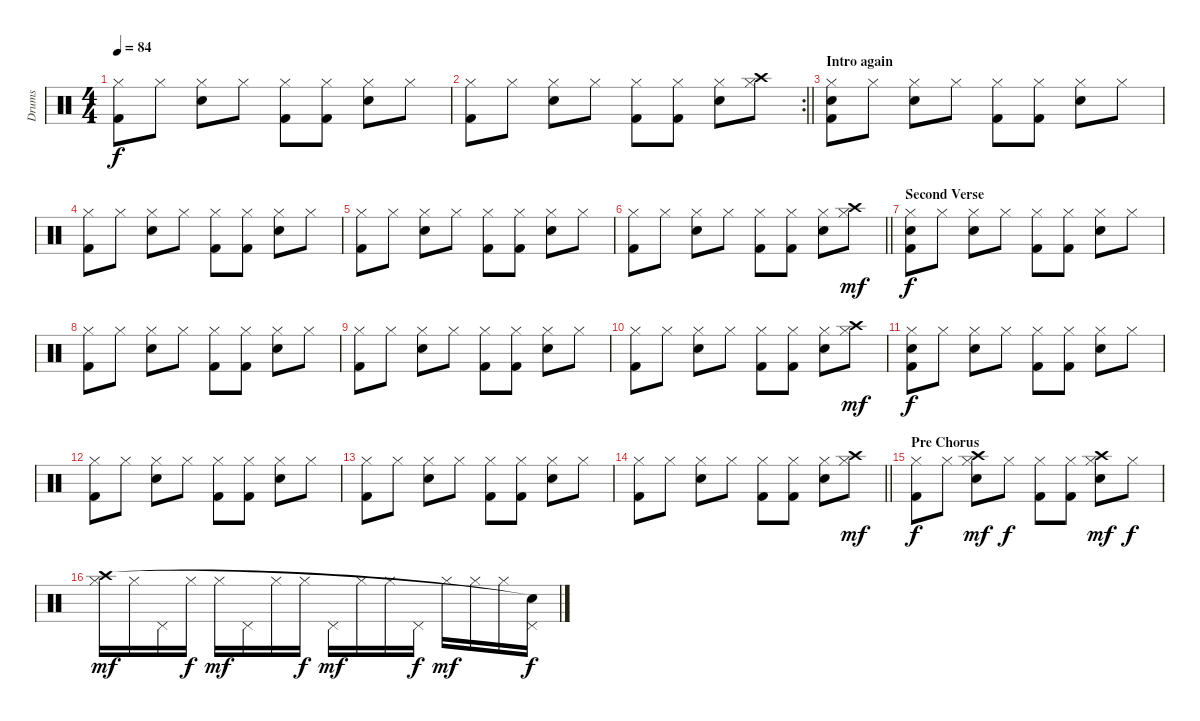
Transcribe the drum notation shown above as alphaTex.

\track ("Drums" "Drums") {instrument percussion}
\staff {score}
\articulation defaults
\ts (4 4)
\tempo 84
\clef neutral
\ks c
("Hi-Hat (closed)" "Kick (hit) 2").8{dy f} "Hi-Hat (closed)".8 ("Hi-Hat (closed)" "Snare (hit) 2").8 "Hi-Hat (closed)".8 ("Hi-Hat (closed)" "Kick (hit) 2").8 ("Hi-Hat (closed)" "Kick (hit) 2").8 ("Hi-Hat (closed)" "Snare (hit) 2").8 "Hi-Hat (closed)".8 |
\rc 2
\barLineRight lightlight
("Hi-Hat (closed)" "Kick (hit) 2").8 "Hi-Hat (closed)".8 ("Hi-Hat (closed)" "Snare (hit) 2").8 "Hi-Hat (closed)".8 ("Hi-Hat (closed)" "Kick (hit) 2").8 ("Hi-Hat (closed)" "Kick (hit) 2").8 ("Hi-Hat (closed)" "Snare (hit) 2").8 ("Hi-Hat (closed)" "Crash high (hit)").8 |
\section ("" "Intro again")
("Hi-Hat (closed)" "Kick (hit) 2" "Snare (hit)").8 "Hi-Hat (closed)".8 ("Hi-Hat (closed)" "Snare (hit) 2").8 "Hi-Hat (closed)".8 ("Hi-Hat (closed)" "Kick (hit) 2").8 ("Hi-Hat (closed)" "Kick (hit) 2").8 ("Hi-Hat (closed)" "Snare (hit) 2").8 "Hi-Hat (closed)".8 |
("Hi-Hat (closed)" "Kick (hit) 2").8 "Hi-Hat (closed)".8 ("Hi-Hat (closed)" "Snare (hit) 2").8 "Hi-Hat (closed)".8 ("Hi-Hat (closed)" "Kick (hit) 2").8 ("Hi-Hat (closed)" "Kick (hit) 2").8 ("Hi-Hat (closed)" "Snare (hit) 2").8 "Hi-Hat (closed)".8 |
("Hi-Hat (closed)" "Kick (hit) 2").8 "Hi-Hat (closed)".8 ("Hi-Hat (closed)" "Snare (hit) 2").8 "Hi-Hat (closed)".8 ("Hi-Hat (closed)" "Kick (hit) 2").8 ("Hi-Hat (closed)" "Kick (hit) 2").8 ("Hi-Hat (closed)" "Snare (hit) 2").8 "Hi-Hat (closed)".8 |
\barLineRight lightlight
("Hi-Hat (closed)" "Kick (hit) 2").8 "Hi-Hat (closed)".8 ("Hi-Hat (closed)" "Snare (hit) 2").8 "Hi-Hat (closed)".8 ("Hi-Hat (closed)" "Kick (hit) 2").8 ("Hi-Hat (closed)" "Kick (hit) 2").8 ("Hi-Hat (closed)" "Snare (hit) 2").8 ("Hi-Hat (closed)" "Crash high (hit)").8{dy mf} |
\section ("" "Second Verse")
("Hi-Hat (closed)" "Kick (hit) 2" "Snare (hit)").8{dy f} "Hi-Hat (closed)".8 ("Hi-Hat (closed)" "Snare (hit) 2").8 "Hi-Hat (closed)".8 ("Hi-Hat (closed)" "Kick (hit) 2").8 ("Hi-Hat (closed)" "Kick (hit) 2").8 ("Hi-Hat (closed)" "Snare (hit) 2").8 "Hi-Hat (closed)".8 |
("Hi-Hat (closed)" "Kick (hit) 2").8 "Hi-Hat (closed)".8 ("Hi-Hat (closed)" "Snare (hit) 2").8 "Hi-Hat (closed)".8 ("Hi-Hat (closed)" "Kick (hit) 2").8 ("Hi-Hat (closed)" "Kick (hit) 2").8 ("Hi-Hat (closed)" "Snare (hit) 2").8 "Hi-Hat (closed)".8 |
("Hi-Hat (closed)" "Kick (hit) 2").8 "Hi-Hat (closed)".8 ("Hi-Hat (closed)" "Snare (hit) 2").8 "Hi-Hat (closed)".8 ("Hi-Hat (closed)" "Kick (hit) 2").8 ("Hi-Hat (closed)" "Kick (hit) 2").8 ("Hi-Hat (closed)" "Snare (hit) 2").8 "Hi-Hat (closed)".8 |
("Hi-Hat (closed)" "Kick (hit) 2").8 "Hi-Hat (closed)".8 ("Hi-Hat (closed)" "Snare (hit) 2").8 "Hi-Hat (closed)".8 ("Hi-Hat (closed)" "Kick (hit) 2").8 ("Hi-Hat (closed)" "Kick (hit) 2").8 ("Hi-Hat (closed)" "Snare (hit) 2").8 ("Hi-Hat (closed)" "Crash high (hit)").8{dy mf} |
("Hi-Hat (closed)" "Kick (hit) 2" "Snare (hit)").8{dy f} "Hi-Hat (closed)".8 ("Hi-Hat (closed)" "Snare (hit) 2").8 "Hi-Hat (closed)".8 ("Hi-Hat (closed)" "Kick (hit) 2").8 ("Hi-Hat (closed)" "Kick (hit) 2").8 ("Hi-Hat (closed)" "Snare (hit) 2").8 "Hi-Hat (closed)".8 |
("Hi-Hat (closed)" "Kick (hit) 2").8 "Hi-Hat (closed)".8 ("Hi-Hat (closed)" "Snare (hit) 2").8 "Hi-Hat (closed)".8 ("Hi-Hat (closed)" "Kick (hit) 2").8 ("Hi-Hat (closed)" "Kick (hit) 2").8 ("Hi-Hat (closed)" "Snare (hit) 2").8 "Hi-Hat (closed)".8 |
("Hi-Hat (closed)" "Kick (hit) 2").8 "Hi-Hat (closed)".8 ("Hi-Hat (closed)" "Snare (hit) 2").8 "Hi-Hat (closed)".8 ("Hi-Hat (closed)" "Kick (hit) 2").8 ("Hi-Hat (closed)" "Kick (hit) 2").8 ("Hi-Hat (closed)" "Snare (hit) 2").8 "Hi-Hat (closed)".8 |
\barLineRight lightlight
("Hi-Hat (closed)" "Kick (hit) 2").8 "Hi-Hat (closed)".8 ("Hi-Hat (closed)" "Snare (hit) 2").8 "Hi-Hat (closed)".8 ("Hi-Hat (closed)" "Kick (hit) 2").8 ("Hi-Hat (closed)" "Kick (hit) 2").8 ("Hi-Hat (closed)" "Snare (hit) 2").8 ("Hi-Hat (closed)" "Crash high (hit)").8{dy mf} |
\section ("" "Pre Chorus")
("Hi-Hat (closed)" "Kick (hit) 2").8{dy f} "Hi-Hat (closed)".8 ("Hi-Hat (closed)" "Snare (hit) 2" "Crash high (hit)").8{dy mf} "Hi-Hat (closed)".8{dy f} ("Hi-Hat (closed)" "Kick (hit) 2").8 ("Hi-Hat (closed)" "Kick (hit) 2").8 ("Hi-Hat (closed)" "Snare (hit) 2" "Crash high (hit)").8{dy mf} "Hi-Hat (closed)".8{dy f} |
("Hi-Hat (closed)" "Crash high (hit)").16{dy mf} "Hi-Hat (closed)".16 "Pedal Hi-Hat (hit)".16 "Hi-Hat (closed)".16{dy f} "Hi-Hat (closed)".16{dy mf} "Pedal Hi-Hat (hit)".16 "Hi-Hat (closed)".16 "Hi-Hat (closed)".16{dy f} "Pedal Hi-Hat (hit)".16{dy mf} "Hi-Hat (closed)".16 "Hi-Hat (closed)".16 "Pedal Hi-Hat (hit)".16{dy f} "Hi-Hat (closed)".16{dy mf} "Hi-Hat (closed)".16 "Hi-Hat (closed)".16 ("Pedal Hi-Hat (hit)" "Snare (hit)"{t}).16{dy f}
